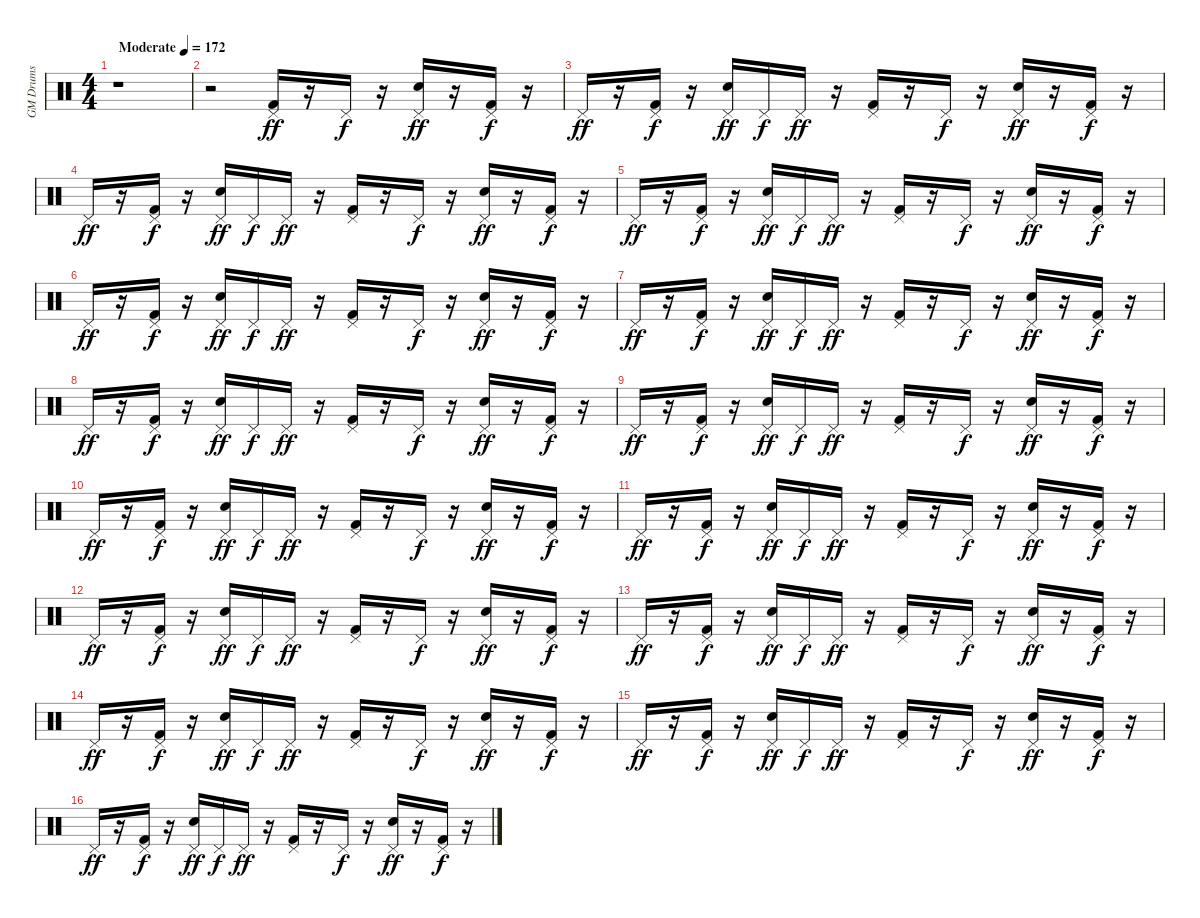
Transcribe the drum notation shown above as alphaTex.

\track ("GM Drums" "GM Drums") {instrument percussion}
\staff {score}
\articulation defaults
\ts (4 4)
\tempo (172 "Moderate")
\clef neutral
\ks c
r.1{dy ff} |
r.2 ("Kick (hit) 2" "Pedal Hi-Hat (hit)").16 r.16 "Pedal Hi-Hat (hit)".16{dy f} r.16 ("Snare (hit) 2" "Pedal Hi-Hat (hit)").16{dy ff} r.16 ("Kick (hit) 2" "Pedal Hi-Hat (hit)").16{dy f} r.16 |
"Pedal Hi-Hat (hit)".16{dy ff} r.16 ("Kick (hit) 2" "Pedal Hi-Hat (hit)").16{dy f} r.16 ("Snare (hit) 2" "Pedal Hi-Hat (hit)").16{dy ff} "Pedal Hi-Hat (hit)".16{dy f} "Pedal Hi-Hat (hit)".16{dy ff} r.16 ("Kick (hit) 2" "Pedal Hi-Hat (hit)").16 r.16 "Pedal Hi-Hat (hit)".16{dy f} r.16 ("Snare (hit) 2" "Pedal Hi-Hat (hit)").16{dy ff} r.16 ("Kick (hit) 2" "Pedal Hi-Hat (hit)").16{dy f} r.16 |
"Pedal Hi-Hat (hit)".16{dy ff} r.16 ("Kick (hit) 2" "Pedal Hi-Hat (hit)").16{dy f} r.16 ("Snare (hit) 2" "Pedal Hi-Hat (hit)").16{dy ff} "Pedal Hi-Hat (hit)".16{dy f} "Pedal Hi-Hat (hit)".16{dy ff} r.16 ("Kick (hit) 2" "Pedal Hi-Hat (hit)").16 r.16 "Pedal Hi-Hat (hit)".16{dy f} r.16 ("Snare (hit) 2" "Pedal Hi-Hat (hit)").16{dy ff} r.16 ("Kick (hit) 2" "Pedal Hi-Hat (hit)").16{dy f} r.16 |
"Pedal Hi-Hat (hit)".16{dy ff} r.16 ("Kick (hit) 2" "Pedal Hi-Hat (hit)").16{dy f} r.16 ("Snare (hit) 2" "Pedal Hi-Hat (hit)").16{dy ff} "Pedal Hi-Hat (hit)".16{dy f} "Pedal Hi-Hat (hit)".16{dy ff} r.16 ("Kick (hit) 2" "Pedal Hi-Hat (hit)").16 r.16 "Pedal Hi-Hat (hit)".16{dy f} r.16 ("Snare (hit) 2" "Pedal Hi-Hat (hit)").16{dy ff} r.16 ("Kick (hit) 2" "Pedal Hi-Hat (hit)").16{dy f} r.16 |
"Pedal Hi-Hat (hit)".16{dy ff} r.16 ("Kick (hit) 2" "Pedal Hi-Hat (hit)").16{dy f} r.16 ("Snare (hit) 2" "Pedal Hi-Hat (hit)").16{dy ff} "Pedal Hi-Hat (hit)".16{dy f} "Pedal Hi-Hat (hit)".16{dy ff} r.16 ("Kick (hit) 2" "Pedal Hi-Hat (hit)").16 r.16 "Pedal Hi-Hat (hit)".16{dy f} r.16 ("Snare (hit) 2" "Pedal Hi-Hat (hit)").16{dy ff} r.16 ("Kick (hit) 2" "Pedal Hi-Hat (hit)").16{dy f} r.16 |
"Pedal Hi-Hat (hit)".16{dy ff} r.16 ("Kick (hit) 2" "Pedal Hi-Hat (hit)").16{dy f} r.16 ("Snare (hit) 2" "Pedal Hi-Hat (hit)").16{dy ff} "Pedal Hi-Hat (hit)".16{dy f} "Pedal Hi-Hat (hit)".16{dy ff} r.16 ("Kick (hit) 2" "Pedal Hi-Hat (hit)").16 r.16 "Pedal Hi-Hat (hit)".16{dy f} r.16 ("Snare (hit) 2" "Pedal Hi-Hat (hit)").16{dy ff} r.16 ("Kick (hit) 2" "Pedal Hi-Hat (hit)").16{dy f} r.16 |
"Pedal Hi-Hat (hit)".16{dy ff} r.16 ("Kick (hit) 2" "Pedal Hi-Hat (hit)").16{dy f} r.16 ("Snare (hit) 2" "Pedal Hi-Hat (hit)").16{dy ff} "Pedal Hi-Hat (hit)".16{dy f} "Pedal Hi-Hat (hit)".16{dy ff} r.16 ("Kick (hit) 2" "Pedal Hi-Hat (hit)").16 r.16 "Pedal Hi-Hat (hit)".16{dy f} r.16 ("Snare (hit) 2" "Pedal Hi-Hat (hit)").16{dy ff} r.16 ("Kick (hit) 2" "Pedal Hi-Hat (hit)").16{dy f} r.16 |
"Pedal Hi-Hat (hit)".16{dy ff} r.16 ("Kick (hit) 2" "Pedal Hi-Hat (hit)").16{dy f} r.16 ("Snare (hit) 2" "Pedal Hi-Hat (hit)").16{dy ff} "Pedal Hi-Hat (hit)".16{dy f} "Pedal Hi-Hat (hit)".16{dy ff} r.16 ("Kick (hit) 2" "Pedal Hi-Hat (hit)").16 r.16 "Pedal Hi-Hat (hit)".16{dy f} r.16 ("Snare (hit) 2" "Pedal Hi-Hat (hit)").16{dy ff} r.16 ("Kick (hit) 2" "Pedal Hi-Hat (hit)").16{dy f} r.16 |
"Pedal Hi-Hat (hit)".16{dy ff} r.16 ("Kick (hit) 2" "Pedal Hi-Hat (hit)").16{dy f} r.16 ("Snare (hit) 2" "Pedal Hi-Hat (hit)").16{dy ff} "Pedal Hi-Hat (hit)".16{dy f} "Pedal Hi-Hat (hit)".16{dy ff} r.16 ("Kick (hit) 2" "Pedal Hi-Hat (hit)").16 r.16 "Pedal Hi-Hat (hit)".16{dy f} r.16 ("Snare (hit) 2" "Pedal Hi-Hat (hit)").16{dy ff} r.16 ("Kick (hit) 2" "Pedal Hi-Hat (hit)").16{dy f} r.16 |
"Pedal Hi-Hat (hit)".16{dy ff} r.16 ("Kick (hit) 2" "Pedal Hi-Hat (hit)").16{dy f} r.16 ("Snare (hit) 2" "Pedal Hi-Hat (hit)").16{dy ff} "Pedal Hi-Hat (hit)".16{dy f} "Pedal Hi-Hat (hit)".16{dy ff} r.16 ("Kick (hit) 2" "Pedal Hi-Hat (hit)").16 r.16 "Pedal Hi-Hat (hit)".16{dy f} r.16 ("Snare (hit) 2" "Pedal Hi-Hat (hit)").16{dy ff} r.16 ("Kick (hit) 2" "Pedal Hi-Hat (hit)").16{dy f} r.16 |
"Pedal Hi-Hat (hit)".16{dy ff} r.16 ("Kick (hit) 2" "Pedal Hi-Hat (hit)").16{dy f} r.16 ("Snare (hit) 2" "Pedal Hi-Hat (hit)").16{dy ff} "Pedal Hi-Hat (hit)".16{dy f} "Pedal Hi-Hat (hit)".16{dy ff} r.16 ("Kick (hit) 2" "Pedal Hi-Hat (hit)").16 r.16 "Pedal Hi-Hat (hit)".16{dy f} r.16 ("Snare (hit) 2" "Pedal Hi-Hat (hit)").16{dy ff} r.16 ("Kick (hit) 2" "Pedal Hi-Hat (hit)").16{dy f} r.16 |
"Pedal Hi-Hat (hit)".16{dy ff} r.16 ("Kick (hit) 2" "Pedal Hi-Hat (hit)").16{dy f} r.16 ("Snare (hit) 2" "Pedal Hi-Hat (hit)").16{dy ff} "Pedal Hi-Hat (hit)".16{dy f} "Pedal Hi-Hat (hit)".16{dy ff} r.16 ("Kick (hit) 2" "Pedal Hi-Hat (hit)").16 r.16 "Pedal Hi-Hat (hit)".16{dy f} r.16 ("Snare (hit) 2" "Pedal Hi-Hat (hit)").16{dy ff} r.16 ("Kick (hit) 2" "Pedal Hi-Hat (hit)").16{dy f} r.16 |
"Pedal Hi-Hat (hit)".16{dy ff} r.16 ("Kick (hit) 2" "Pedal Hi-Hat (hit)").16{dy f} r.16 ("Snare (hit) 2" "Pedal Hi-Hat (hit)").16{dy ff} "Pedal Hi-Hat (hit)".16{dy f} "Pedal Hi-Hat (hit)".16{dy ff} r.16 ("Kick (hit) 2" "Pedal Hi-Hat (hit)").16 r.16 "Pedal Hi-Hat (hit)".16{dy f} r.16 ("Snare (hit) 2" "Pedal Hi-Hat (hit)").16{dy ff} r.16 ("Kick (hit) 2" "Pedal Hi-Hat (hit)").16{dy f} r.16 |
"Pedal Hi-Hat (hit)".16{dy ff} r.16 ("Kick (hit) 2" "Pedal Hi-Hat (hit)").16{dy f} r.16 ("Snare (hit) 2" "Pedal Hi-Hat (hit)").16{dy ff} "Pedal Hi-Hat (hit)".16{dy f} "Pedal Hi-Hat (hit)".16{dy ff} r.16 ("Kick (hit) 2" "Pedal Hi-Hat (hit)").16 r.16 "Pedal Hi-Hat (hit)".16{dy f} r.16 ("Snare (hit) 2" "Pedal Hi-Hat (hit)").16{dy ff} r.16 ("Kick (hit) 2" "Pedal Hi-Hat (hit)").16{dy f} r.16 |
"Pedal Hi-Hat (hit)".16{dy ff} r.16 ("Kick (hit) 2" "Pedal Hi-Hat (hit)").16{dy f} r.16 ("Snare (hit) 2" "Pedal Hi-Hat (hit)").16{dy ff} "Pedal Hi-Hat (hit)".16{dy f} "Pedal Hi-Hat (hit)".16{dy ff} r.16 ("Kick (hit) 2" "Pedal Hi-Hat (hit)").16 r.16 "Pedal Hi-Hat (hit)".16{dy f} r.16 ("Snare (hit) 2" "Pedal Hi-Hat (hit)").16{dy ff} r.16 ("Kick (hit) 2" "Pedal Hi-Hat (hit)").16{dy f} r.16
